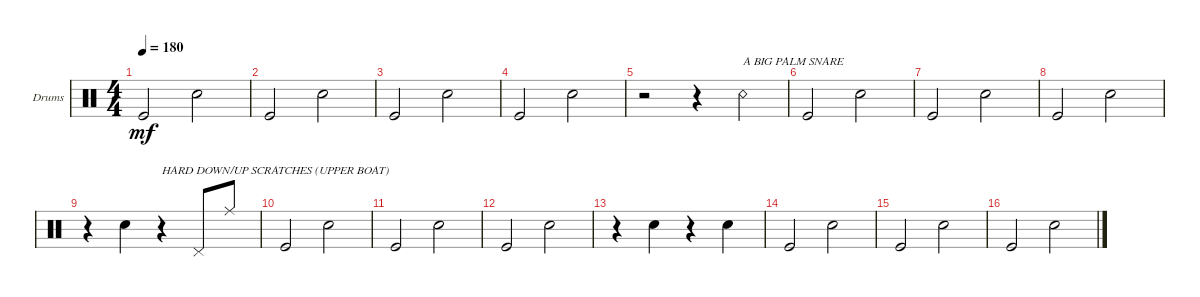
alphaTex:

\defaultSystemsLayout 4
\bracketExtendMode groupsimilarinstruments
\firstSystemTrackNameOrientation horizontal
\otherSystemsTrackNameOrientation horizontal
\track ("Drumkit" "Drums") {instrument percussion}
\staff {score}
\articulation defaults
\ts (4 4)
\tempo 180
\clef neutral
\scale
0.333333
\ks c "Kick (hit)".2{dy mf} "Snare (hit) 2".2
|
\scale
0.333333 "Kick (hit)".2 "Snare (hit) 2".2 |
\scale
0.333333 "Kick (hit)".2 "Snare (hit) 2".2 |
\scale
0.333333 "Kick (hit)".2 "Snare (hit) 2".2 |
\scale
0.333333 r.2 r.4 "Snare (rim shot)".4{txt "A BIG PALM SNARE"} |
\scale
0.333333 "Kick (hit)".2 "Snare (hit) 2".2 |
\scale
0.333333 "Kick (hit)".2 "Snare (hit) 2".2 |
\scale
0.333333 "Kick (hit)".2 "Snare (hit) 2".2 |
\scale
0.333333 r.4 "Snare (hit) 2".4 r.4{txt "HARD DOWN/UP SCRATCHES (UPPER BOAT)"} "Pedal Hi-Hat (hit)".8 "Ride (middle)".8 |
\scale
0.333333 "Kick (hit)".2 "Snare (hit) 2".2 |
\scale
0.333333 "Kick (hit)".2 "Snare (hit) 2".2 |
\scale
0.333333 "Kick (hit)".2 "Snare (hit) 2".2 |
\scale
0.333333 r.4 "Snare (hit) 2".4 r.4 "Snare (hit) 2".4 |
\scale
0.333333 "Kick (hit)".2 "Snare (hit) 2".2 |
\scale
0.333333 "Kick (hit)".2 "Snare (hit) 2".2 |
\scale
0.333333 "Kick (hit)".2 "Snare (hit) 2".2
